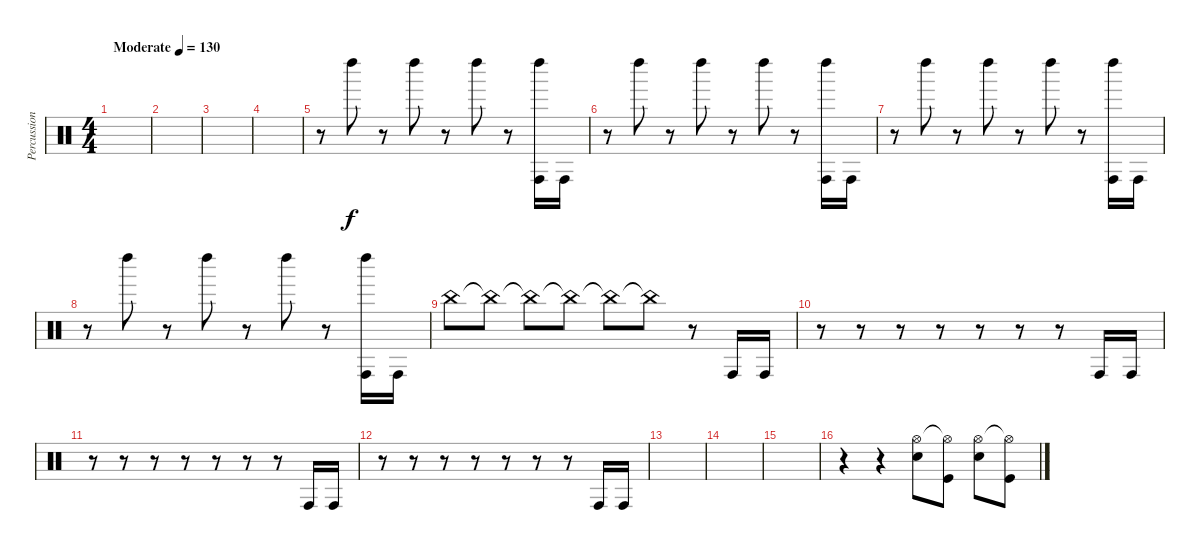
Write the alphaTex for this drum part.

\track ("Percussion" "Percussion") {instrument percussion}
\staff {score}
\articulation defaults
\ts (4 4)
\tempo (130 "Moderate")
\clef neutral
\ks c
|
|
|
|
r.8 "Left Maraca (hit)".8 r.8 "Left Maraca (hit)".8 r.8 "Left Maraca (hit)".8 r.8 ("Conga high (hit)" "Left Maraca (hit)").16 "Conga high (hit)".16 |
r.8 "Left Maraca (hit)".8 r.8 "Left Maraca (hit)".8 r.8 "Left Maraca (hit)".8 r.8 ("Conga high (hit)" "Left Maraca (hit)").16 "Conga high (hit)".16 |
r.8 "Left Maraca (hit)".8 r.8 "Left Maraca (hit)".8 r.8 "Left Maraca (hit)".8 r.8 ("Conga high (hit)" "Left Maraca (hit)").16 "Conga high (hit)".16 |
r.8 "Left Maraca (hit)".8 r.8 "Left Maraca (hit)".8 r.8 "Left Maraca (hit)".8 r.8 ("Conga high (hit)" "Left Maraca (hit)").16 "Conga high (hit)".16 |
"China (hit)".8 "China (hit)"{t}.8 "China (hit)"{t}.8 "China (hit)"{t}.8 "China (hit)"{t}.8 "China (hit)"{t}.8 r.8 "Conga high (hit)".16 "Conga high (hit)".16 |
r.8 r.8 r.8 r.8 r.8 r.8 r.8 "Conga high (hit)".16 "Conga high (hit)".16 |
r.8 r.8 r.8 r.8 r.8 r.8 r.8 "Conga high (hit)".16 "Conga high (hit)".16 |
r.8 r.8 r.8 r.8 r.8 r.8 r.8 "Conga high (hit)".16 "Conga high (hit)".16 |
|
|
|
r.4{volume 16} r.4 ("Hi-Hat (open)" "Snare (hit) 2").8 ("Hi-Hat (open)"{t} "Kick (hit)").8 ("Hi-Hat (open)" "Snare (hit) 2").8 ("Hi-Hat (open)"{t} "Kick (hit)").8
